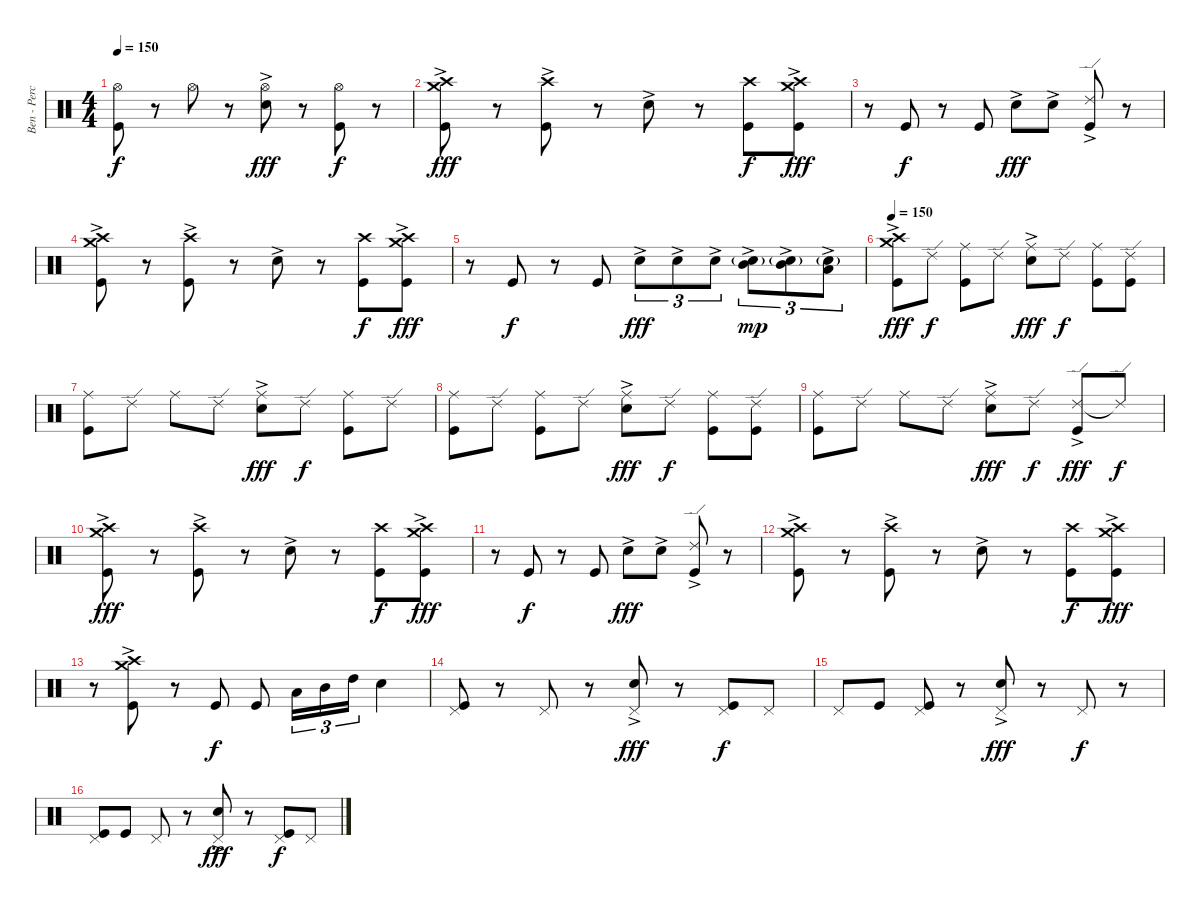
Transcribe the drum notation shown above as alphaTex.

\track ("Ben - Perception Twin - Drums" "Ben - Perc") {instrument percussion}
\staff {score}
\articulation defaults
\ts (4 4)
\tempo 150
\clef neutral
\ks c
("Hi-Hat (open)" "Kick (hit)").8{dy f} r.8 "Hi-Hat (open)".8 r.8 ("Hi-Hat (open)" "Electric Snare (hit)"{ac}).8{dy fff} r.8 ("Hi-Hat (open)" "Kick (hit)").8{dy f} r.8 |
("Crash medium (hit)"{ac} "Crash high (hit)"{ac} "Kick (hit)").8{dy fff} r.8 ("Crash high (hit)"{ac} "Kick (hit)").8 r.8 "Electric Snare (hit)"{ac}.8 r.8 ("Crash high (hit)" "Kick (hit)").8{dy f} ("Crash medium (hit)"{ac} "Crash high (hit)"{ac} "Kick (hit)").8{dy fff} |
r.8 "Kick (hit)".8{dy f} r.8 "Kick (hit)".8 "Electric Snare (hit)"{ac}.8{dy fff} "Electric Snare (hit)"{ac}.8 ("Ride (edge) 2"{ac} "Kick (hit)").8 r.8 |
("Crash medium (hit)"{ac} "Crash high (hit)"{ac} "Kick (hit)").8 r.8 ("Crash high (hit)"{ac} "Kick (hit)").8 r.8 "Electric Snare (hit)"{ac}.8 r.8 ("Crash high (hit)" "Kick (hit)").8{dy f} ("Crash medium (hit)"{ac} "Crash high (hit)"{ac} "Kick (hit)").8{dy fff} |
r.8 "Kick (hit)".8{dy f} r.8 "Kick (hit)".8 "Electric Snare (hit)"{ac}.8{tu (3 2) dy fff} "Electric Snare (hit)"{ac}.8{tu (3 2)} "Electric Snare (hit)"{ac}.8{tu (3 2)} ("Mid Tom (hit)"{ac} "Electric Snare (hit)"{g}).8{tu (3 2) dy mp} ("Mid Tom (hit)"{ac} "Electric Snare (hit)"{g}).8{tu (3 2)} ("Low Tom (hit)"{ac} "Electric Snare (hit)"{g}).8{tu (3 2)} |
\tempo 150
("Crash medium (hit)"{ac} "Crash high (hit)"{ac} "Kick (hit)").8{dy fff} "Ride (edge) 2".8{dy f} ("Ride (middle)" "Kick (hit)").8 "Ride (edge) 2".8 ("Ride (middle)" "Electric Snare (hit)"{ac}).8{dy fff} "Ride (edge) 2".8{dy f} ("Ride (middle)" "Kick (hit)").8 ("Ride (edge) 2" "Kick (hit)").8 |
("Ride (middle)" "Kick (hit)").8 "Ride (edge) 2".8 "Ride (middle)".8 "Ride (edge) 2".8 ("Ride (middle)" "Electric Snare (hit)"{ac}).8{dy fff} "Ride (edge) 2".8{dy f} ("Ride (middle)" "Kick (hit)").8 "Ride (edge) 2".8 |
("Ride (middle)" "Kick (hit)").8 "Ride (edge) 2".8 ("Ride (middle)" "Kick (hit)").8 "Ride (edge) 2".8 ("Ride (middle)" "Electric Snare (hit)"{ac}).8{dy fff} "Ride (edge) 2".8{dy f} ("Ride (middle)" "Kick (hit)").8 ("Ride (edge) 2" "Kick (hit)").8 |
("Ride (middle)" "Kick (hit)").8 "Ride (edge) 2".8 "Ride (middle)".8 "Ride (edge) 2".8 ("Ride (middle)" "Electric Snare (hit)"{ac}).8{dy fff} "Ride (edge) 2".8{dy f} ("Ride (edge) 2"{ac} "Kick (hit)").8{dy fff} "Ride (edge) 2"{t}.8{dy f} |
("Crash medium (hit)"{ac} "Crash high (hit)"{ac} "Kick (hit)").8{dy fff} r.8 ("Crash high (hit)"{ac} "Kick (hit)").8 r.8 "Electric Snare (hit)"{ac}.8 r.8 ("Crash high (hit)" "Kick (hit)").8{dy f} ("Crash medium (hit)"{ac} "Crash high (hit)"{ac} "Kick (hit)").8{dy fff} |
r.8 "Kick (hit)".8{dy f} r.8 "Kick (hit)".8 "Electric Snare (hit)"{ac}.8{dy fff} "Electric Snare (hit)"{ac}.8 ("Ride (edge) 2"{ac} "Kick (hit)").8 r.8 |
("Crash medium (hit)"{ac} "Crash high (hit)"{ac} "Kick (hit)").8 r.8 ("Crash high (hit)"{ac} "Kick (hit)").8 r.8 "Electric Snare (hit)"{ac}.8 r.8 ("Crash high (hit)" "Kick (hit)").8{dy f} ("Crash medium (hit)"{ac} "Crash high (hit)"{ac} "Kick (hit)").8{dy fff} |
r.8 ("Crash medium (hit)"{ac} "Crash high (hit)"{ac} "Kick (hit)").8 r.8 "Kick (hit)".8{dy f} "Kick (hit)".8 "Low Tom (hit)".16{tu (3 2)} "Mid Tom (hit)".16{tu (3 2)} "High Tom (hit)".16{tu (3 2)} "Electric Snare (hit)".4 |
("Pedal Hi-Hat (hit)" "Kick (hit)").8 r.8 "Pedal Hi-Hat (hit)".8 r.8 ("Pedal Hi-Hat (hit)" "Electric Snare (hit)"{ac}).8{dy fff} r.8 ("Pedal Hi-Hat (hit)" "Kick (hit)").8{dy f} "Pedal Hi-Hat (hit)".8 |
"Pedal Hi-Hat (hit)".8 "Kick (hit)".8 ("Pedal Hi-Hat (hit)" "Kick (hit)").8 r.8 ("Pedal Hi-Hat (hit)" "Electric Snare (hit)"{ac}).8{dy fff} r.8 "Pedal Hi-Hat (hit)".8{dy f} r.8 |
("Pedal Hi-Hat (hit)" "Kick (hit)").8 "Kick (hit)".8 "Pedal Hi-Hat (hit)".8 r.8 ("Pedal Hi-Hat (hit)" "Electric Snare (hit)"{ac}).8{dy fff} r.8 ("Pedal Hi-Hat (hit)" "Kick (hit)").8{dy f} "Pedal Hi-Hat (hit)".8
